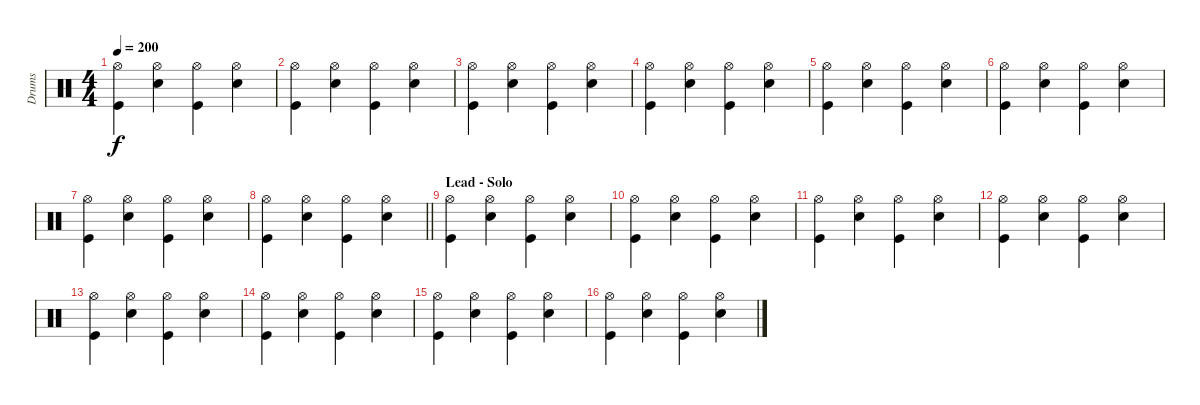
\track ("Drums" "Drums") {instrument percussion}
\staff {score}
\articulation defaults
\ts (4 4)
\tempo 200
\clef neutral
\ks c
("Hi-Hat (open)" "Kick (hit)").4{dy f} ("Hi-Hat (open)" "Snare (hit) 2").4 ("Hi-Hat (open)" "Kick (hit)").4 ("Hi-Hat (open)" "Snare (hit) 2").4 |
("Hi-Hat (open)" "Kick (hit)").4 ("Hi-Hat (open)" "Snare (hit) 2").4 ("Hi-Hat (open)" "Kick (hit)").4 ("Hi-Hat (open)" "Snare (hit) 2").4 |
("Hi-Hat (open)" "Kick (hit)").4 ("Hi-Hat (open)" "Snare (hit) 2").4 ("Hi-Hat (open)" "Kick (hit)").4 ("Hi-Hat (open)" "Snare (hit) 2").4 |
("Hi-Hat (open)" "Kick (hit)").4 ("Hi-Hat (open)" "Snare (hit) 2").4 ("Hi-Hat (open)" "Kick (hit)").4 ("Hi-Hat (open)" "Snare (hit) 2").4 |
("Hi-Hat (open)" "Kick (hit)").4 ("Hi-Hat (open)" "Snare (hit) 2").4 ("Hi-Hat (open)" "Kick (hit)").4 ("Hi-Hat (open)" "Snare (hit) 2").4 |
("Hi-Hat (open)" "Kick (hit)").4 ("Hi-Hat (open)" "Snare (hit) 2").4 ("Hi-Hat (open)" "Kick (hit)").4 ("Hi-Hat (open)" "Snare (hit) 2").4 |
("Hi-Hat (open)" "Kick (hit)").4 ("Hi-Hat (open)" "Snare (hit) 2").4 ("Hi-Hat (open)" "Kick (hit)").4 ("Hi-Hat (open)" "Snare (hit) 2").4 |
\barLineRight lightlight
("Hi-Hat (open)" "Kick (hit)").4 ("Hi-Hat (open)" "Snare (hit) 2").4 ("Hi-Hat (open)" "Kick (hit)").4 ("Hi-Hat (open)" "Snare (hit) 2").4 |
\section ("" "Lead - Solo")
("Hi-Hat (open)" "Kick (hit)").4 ("Hi-Hat (open)" "Snare (hit) 2").4 ("Hi-Hat (open)" "Kick (hit)").4 ("Hi-Hat (open)" "Snare (hit) 2").4 |
("Hi-Hat (open)" "Kick (hit)").4 ("Hi-Hat (open)" "Snare (hit) 2").4 ("Hi-Hat (open)" "Kick (hit)").4 ("Hi-Hat (open)" "Snare (hit) 2").4 |
("Hi-Hat (open)" "Kick (hit)").4 ("Hi-Hat (open)" "Snare (hit) 2").4 ("Hi-Hat (open)" "Kick (hit)").4 ("Hi-Hat (open)" "Snare (hit) 2").4 |
("Hi-Hat (open)" "Kick (hit)").4 ("Hi-Hat (open)" "Snare (hit) 2").4 ("Hi-Hat (open)" "Kick (hit)").4 ("Hi-Hat (open)" "Snare (hit) 2").4 |
("Hi-Hat (open)" "Kick (hit)").4 ("Hi-Hat (open)" "Snare (hit) 2").4 ("Hi-Hat (open)" "Kick (hit)").4 ("Hi-Hat (open)" "Snare (hit) 2").4 |
("Hi-Hat (open)" "Kick (hit)").4 ("Hi-Hat (open)" "Snare (hit) 2").4 ("Hi-Hat (open)" "Kick (hit)").4 ("Hi-Hat (open)" "Snare (hit) 2").4 |
("Hi-Hat (open)" "Kick (hit)").4 ("Hi-Hat (open)" "Snare (hit) 2").4 ("Hi-Hat (open)" "Kick (hit)").4 ("Hi-Hat (open)" "Snare (hit) 2").4 |
("Hi-Hat (open)" "Kick (hit)").4 ("Hi-Hat (open)" "Snare (hit) 2").4 ("Hi-Hat (open)" "Kick (hit)").4 ("Hi-Hat (open)" "Snare (hit) 2").4
